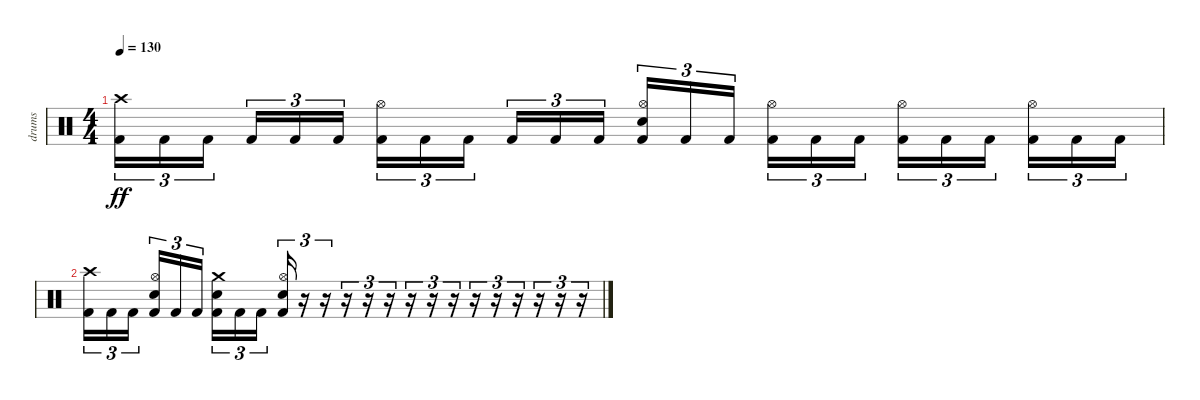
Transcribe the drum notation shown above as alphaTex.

\track ("drums" "drums") {instrument percussion}
\staff {score}
\articulation defaults
\ts (4 4)
\tempo 130
\clef neutral
\ks c
("Crash high (hit)" "Kick (hit) 2").16{tu (3 2) dy ff} "Kick (hit) 2".16{tu (3 2)} "Kick (hit) 2".16{tu (3 2) beam splitsecondary} "Kick (hit) 2".16{tu (3 2)} "Kick (hit) 2".16{tu (3 2)} "Kick (hit) 2".16{tu (3 2)} ("Hi-Hat (open)" "Kick (hit) 2").16{tu (3 2)} "Kick (hit) 2".16{tu (3 2)} "Kick (hit) 2".16{tu (3 2) beam splitsecondary} "Kick (hit) 2".16{tu (3 2)} "Kick (hit) 2".16{tu (3 2)} "Kick (hit) 2".16{tu (3 2)} ("Electric Snare (hit)" "Hi-Hat (open)" "Kick (hit) 2").16{tu (3 2)} "Kick (hit) 2".16{tu (3 2)} "Kick (hit) 2".16{tu (3 2) beam splitsecondary} ("Hi-Hat (open)" "Kick (hit) 2").16{tu (3 2)} "Kick (hit) 2".16{tu (3 2)} "Kick (hit) 2".16{tu (3 2)} ("Hi-Hat (open)" "Kick (hit) 2").16{tu (3 2)} "Kick (hit) 2".16{tu (3 2)} "Kick (hit) 2".16{tu (3 2) beam splitsecondary} ("Hi-Hat (open)" "Kick (hit) 2").16{tu (3 2)} "Kick (hit) 2".16{tu (3 2)} "Kick (hit) 2".16{tu (3 2)} |
("Crash high (hit)" "Kick (hit) 2").16{tu (3 2)} "Kick (hit) 2".16{tu (3 2)} "Kick (hit) 2".16{tu (3 2) beam splitsecondary} ("Electric Snare (hit)" "Hi-Hat (open)" "Kick (hit) 2").16{tu (3 2)} "Kick (hit) 2".16{tu (3 2)} "Kick (hit) 2".16{tu (3 2)} ("Electric Snare (hit)" "Crash medium (hit)" "Kick (hit) 2").16{tu (3 2)} "Kick (hit) 2".16{tu (3 2)} "Kick (hit) 2".16{tu (3 2) beam splitsecondary} ("Electric Snare (hit)" "Hi-Hat (open)" "Kick (hit) 2").16{tu (3 2)} r.16{tu (3 2)} r.16{tu (3 2)} r.16{tu (3 2)} r.16{tu (3 2)} r.16{tu (3 2)} r.16{tu (3 2)} r.16{tu (3 2)} r.16{tu (3 2)} r.16{tu (3 2)} r.16{tu (3 2)} r.16{tu (3 2)} r.16{tu (3 2)} r.16{tu (3 2)} r.16{tu (3 2)}
